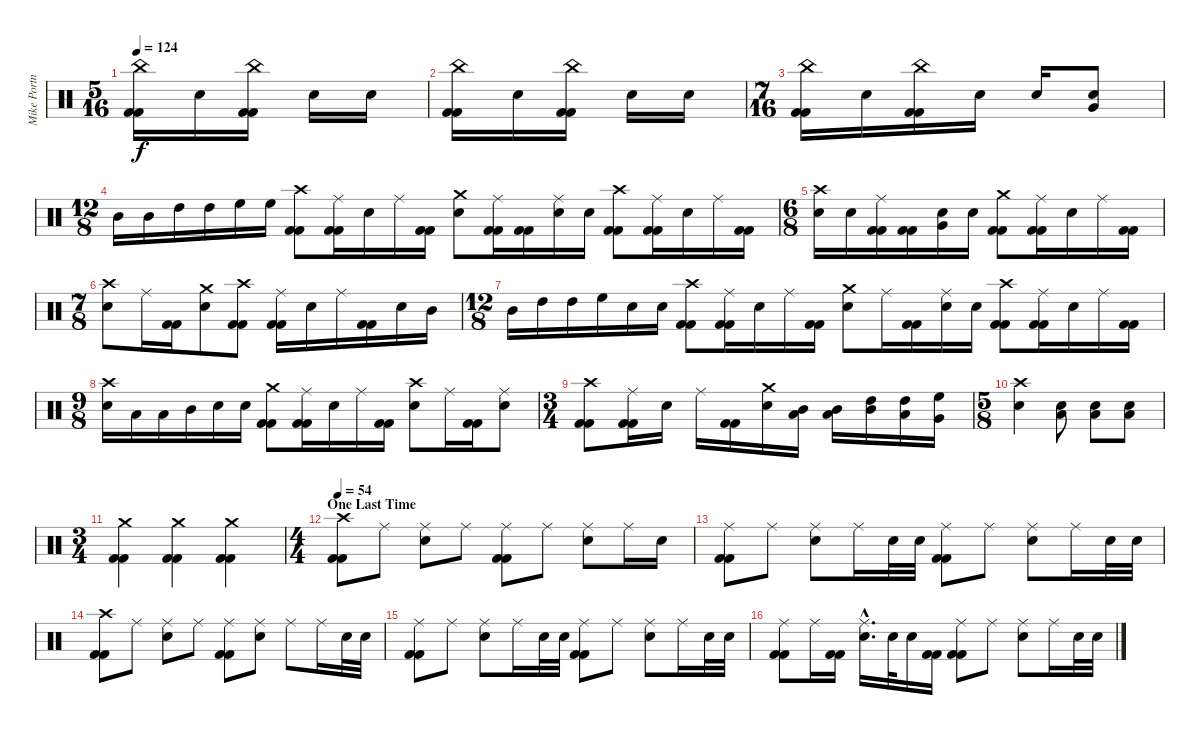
\track ("Mike Portnoy - Drum" "Mike Portn") {instrument percussion}
\staff {score}
\articulation defaults
\ts (5 16)
\tempo 124
\clef neutral
\ks c
("China (hit)" "Kick (hit) 2" "Kick (hit) 2").16{dy f} "Snare (hit) 2".16 ("China (hit)" "Kick (hit) 2" "Kick (hit) 2").16 "Snare (hit) 2".16 "Snare (hit) 2".16 |
("China (hit)" "Kick (hit) 2" "Kick (hit) 2").16 "Snare (hit) 2".16 ("China (hit)" "Kick (hit) 2" "Kick (hit) 2").16 "Snare (hit) 2".16 "Snare (hit) 2".16 |
\ts (7 16)
("China (hit)" "Kick (hit) 2" "Kick (hit) 2").16 "Snare (hit) 2".16 ("China (hit)" "Kick (hit) 2" "Kick (hit) 2").16 "Snare (hit) 2".16 "Snare (hit) 2".16 ("Very Low Tom (hit)" "Snare (hit) 2").8 |
\ts (12 8)
"Mid Tom (hit)".16 "Mid Tom (hit)".16 "High Tom (hit)".16 "High Tom (hit)".16 "High Floor Tom (hit)".16 "High Floor Tom (hit)".16 ("Crash high (hit)" "Kick (hit) 2" "Kick (hit) 2").8 ("Ride (middle)" "Kick (hit) 2" "Kick (hit) 2").16 "Snare (hit) 2".16 "Ride (middle)".16 ("Kick (hit) 2" "Kick (hit) 2").16 ("Crash medium (hit)" "Snare (hit) 2").8 ("Ride (middle)" "Kick (hit) 2" "Kick (hit) 2").16 ("Kick (hit) 2" "Kick (hit) 2").16 ("Ride (middle)" "Snare (hit) 2").16 "Snare (hit) 2".16 ("Crash high (hit)" "Kick (hit) 2" "Kick (hit) 2").8 ("Ride (middle)" "Kick (hit) 2" "Kick (hit) 2").16 "Snare (hit) 2".16 "Ride (middle)".16 ("Kick (hit) 2" "Kick (hit) 2").16 |
\ts (6 8)
("Crash high (hit)" "Snare (hit) 2").16 "Snare (hit) 2".16 ("Ride (middle)" "Kick (hit) 2" "Kick (hit) 2").16 ("Kick (hit) 2" "Kick (hit) 2").16 ("Snare (hit) 2" "Very Low Tom (hit)").16 "Snare (hit) 2".16 ("Crash medium (hit)" "Kick (hit) 2" "Kick (hit) 2").8 ("Ride (middle)" "Kick (hit) 2" "Kick (hit) 2").16 "Snare (hit) 2".16 "Ride (middle)".16 ("Kick (hit) 2" "Kick (hit) 2").16 |
\ts (7 8)
("Crash high (hit)" "Snare (hit) 2").8 "Ride (middle)".16 ("Kick (hit) 2" "Kick (hit) 2").16 ("Crash medium (hit)" "Snare (hit) 2").8 ("Crash high (hit)" "Kick (hit) 2" "Kick (hit) 2").8 ("Ride (middle)" "Kick (hit) 2" "Kick (hit) 2").16 "Snare (hit) 2".16 "Ride (middle)".16 ("Kick (hit) 2" "Kick (hit) 2").16 "Snare (hit) 2".16 "Mid Tom (hit)".16 |
\ts (12 8)
"Mid Tom (hit)".16 "High Tom (hit)".16 "High Tom (hit)".16 "High Floor Tom (hit)".16 "Snare (hit) 2".16 "Snare (hit) 2".16 ("Crash high (hit)" "Kick (hit) 2" "Kick (hit) 2").8 ("Ride (middle)" "Kick (hit) 2" "Kick (hit) 2").16 "Snare (hit) 2".16 "Ride (middle)".16 ("Kick (hit) 2" "Kick (hit) 2").16 ("Crash medium (hit)" "Snare (hit) 2").8 "Ride (middle)".16 ("Kick (hit) 2" "Kick (hit) 2").16 ("Ride (middle)" "Snare (hit) 2").16 "Snare (hit) 2".16 ("Crash high (hit)" "Kick (hit) 2" "Kick (hit) 2").8 ("Ride (middle)" "Kick (hit) 2" "Kick (hit) 2").16 "Snare (hit) 2".16 "Ride (middle)".16 ("Kick (hit) 2" "Kick (hit) 2").16 |
\ts (9 8)
("Crash high (hit)" "Snare (hit) 2").16 "Low Tom (hit)".16 "Low Tom (hit)".16 "Mid Tom (hit)".16 "Snare (hit) 2".16 "Snare (hit) 2".16 ("Crash medium (hit)" "Kick (hit) 2" "Kick (hit) 2").8 ("Ride (middle)" "Kick (hit) 2" "Kick (hit) 2").16 "Snare (hit) 2".16 "Ride (middle)".16 ("Kick (hit) 2" "Kick (hit) 2").16 ("Crash high (hit)" "Snare (hit) 2").8 "Ride (middle)".16 ("Kick (hit) 2" "Kick (hit) 2").16 ("Ride (middle)" "Snare (hit) 2").8 |
\ts (3 4)
("Crash high (hit)" "Kick (hit) 2" "Kick (hit) 2").8 ("Ride (middle)" "Kick (hit) 2" "Kick (hit) 2").16 "Snare (hit) 2".16 "Ride (middle)".16 ("Kick (hit) 2" "Kick (hit) 2").16 ("Crash medium (hit)" "Snare (hit) 2").16 ("Low Tom (hit)" "Mid Tom (hit)").16 ("Low Tom (hit)" "Mid Tom (hit)").16 ("Mid Tom (hit)" "High Tom (hit)").16 ("High Tom (hit)" "Low Floor Tom (hit)").16 ("High Floor Tom (hit)" "Very Low Tom (hit)").16 |
\ts (5 8)
("Crash high (hit)" "Snare (hit) 2").4 ("Snare (hit) 2" "Low Floor Tom (hit)").8 ("Snare (hit) 2" "Low Floor Tom (hit)").8 ("Snare (hit) 2" "Low Floor Tom (hit)").8 |
\ts (3 4)
("Crash medium (hit)" "Kick (hit) 2" "Kick (hit) 2").4 ("Crash medium (hit)" "Kick (hit) 2" "Kick (hit) 2").4 ("Crash medium (hit)" "Kick (hit) 2" "Kick (hit) 2").4 |
\ts (4 4)
\section ("" "One Last Time")
\tempo 54
("Crash high (hit)" "Kick (hit) 2" "Kick (hit) 2").8 "Ride (middle)".8 ("Ride (middle)" "Snare (hit) 2").8 "Ride (middle)".8 ("Ride (middle)" "Kick (hit) 2" "Kick (hit) 2").8 "Ride (middle)".8 ("Ride (middle)" "Snare (hit) 2").8 "Ride (middle)".16 "Snare (hit) 2".16 |
("Ride (middle)" "Kick (hit) 2" "Kick (hit) 2").8 "Ride (middle)".8 ("Ride (middle)" "Snare (hit) 2").8 "Ride (middle)".16 "Snare (hit) 2".32 "Snare (hit) 2".32 ("Ride (middle)" "Kick (hit) 2" "Kick (hit) 2").8 "Ride (middle)".8 ("Ride (middle)" "Snare (hit) 2").8 "Ride (middle)".16 "Snare (hit) 2".32 "Snare (hit) 2".32 |
("Crash high (hit)" "Kick (hit) 2" "Kick (hit) 2").8 "Ride (middle)".8 ("Ride (middle)" "Snare (hit) 2").8 "Ride (middle)".8 ("Ride (middle)" "Kick (hit) 2" "Kick (hit) 2").8 ("Ride (middle)" "Snare (hit) 2").8 "Ride (middle)".8 "Ride (middle)".16 "Snare (hit) 2".32 "Snare (hit) 2".32 |
("Ride (middle)" "Kick (hit) 2" "Kick (hit) 2").8 "Ride (middle)".8 ("Ride (middle)" "Snare (hit) 2").8 "Ride (middle)".16 "Snare (hit) 2".32 "Snare (hit) 2".32 ("Ride (middle)" "Kick (hit) 2" "Kick (hit) 2").8 "Ride (middle)".8 ("Ride (middle)" "Snare (hit) 2").8 "Ride (middle)".16 "Snare (hit) 2".32 "Snare (hit) 2".32 |
("Ride (middle)" "Kick (hit) 2" "Kick (hit) 2").8 "Ride (middle)".16 ("Kick (hit) 2" "Kick (hit) 2").16 ("Ride (middle)"{hac} "Snare (hit) 2"{hac}).16{d} "Snare (hit) 2".32 "Snare (hit) 2".16 ("Kick (hit) 2" "Kick (hit) 2").16 ("Ride (middle)" "Kick (hit) 2" "Kick (hit) 2").8 "Ride (middle)".8 ("Ride (middle)" "Snare (hit) 2").8 "Ride (middle)".16 "Snare (hit) 2".32 "Snare (hit) 2".32
